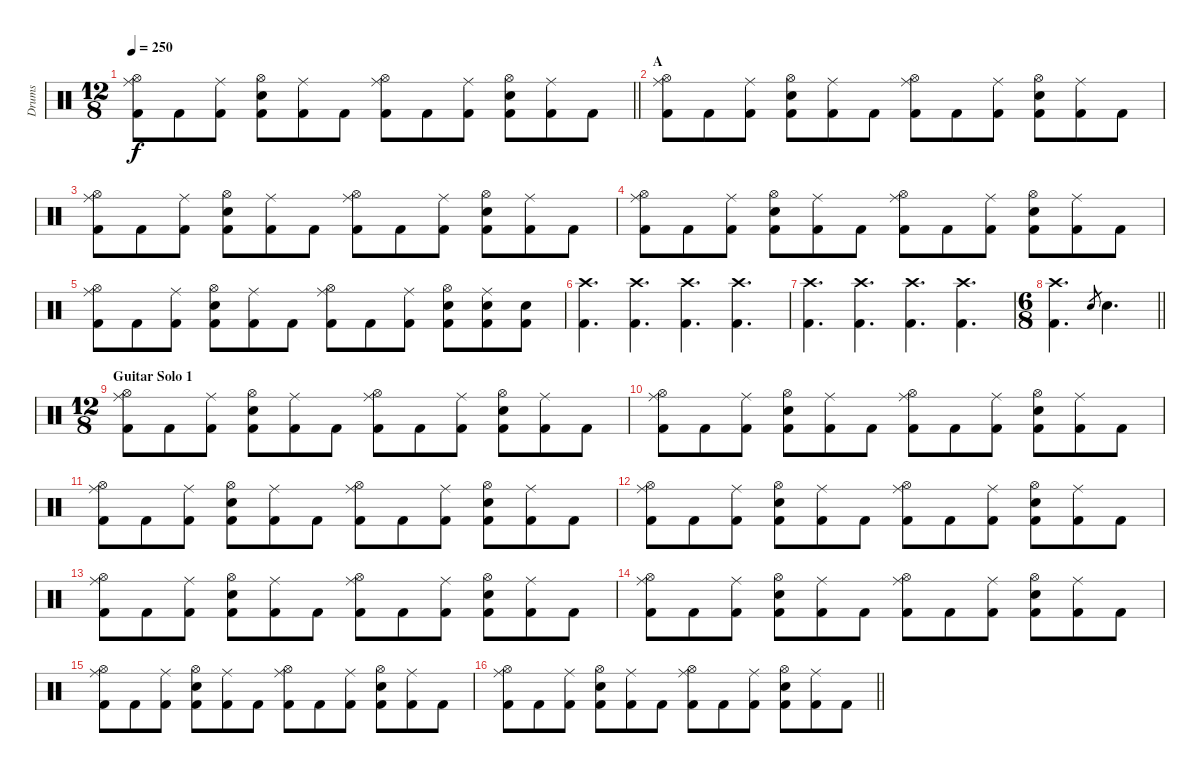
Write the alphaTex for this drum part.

\track ("Drums" "Drums") {instrument percussion}
\staff {score}
\articulation defaults
\ts (12 8)
\tempo 250
\clef neutral
\barLineRight lightlight
\ks c
("Ride (middle)" "Hi-Hat (open)" "Kick (hit) 2").8{dy f} "Kick (hit) 2".8 ("Ride (middle)" "Kick (hit) 2").8 ("Hi-Hat (open)" "Snare (hit) 2" "Kick (hit) 2").8 ("Ride (middle)" "Kick (hit) 2").8 "Kick (hit) 2".8 ("Ride (middle)" "Hi-Hat (open)" "Kick (hit) 2").8 "Kick (hit) 2".8 ("Ride (middle)" "Kick (hit) 2").8 ("Hi-Hat (open)" "Snare (hit) 2" "Kick (hit) 2").8 ("Ride (middle)" "Kick (hit) 2").8 "Kick (hit) 2".8 |
\section ("" "A")
("Ride (middle)" "Hi-Hat (open)" "Kick (hit) 2").8 "Kick (hit) 2".8 ("Ride (middle)" "Kick (hit) 2").8 ("Hi-Hat (open)" "Snare (hit) 2" "Kick (hit) 2").8 ("Ride (middle)" "Kick (hit) 2").8 "Kick (hit) 2".8 ("Ride (middle)" "Hi-Hat (open)" "Kick (hit) 2").8 "Kick (hit) 2".8 ("Ride (middle)" "Kick (hit) 2").8 ("Hi-Hat (open)" "Snare (hit) 2" "Kick (hit) 2").8 ("Ride (middle)" "Kick (hit) 2").8 "Kick (hit) 2".8 |
("Ride (middle)" "Hi-Hat (open)" "Kick (hit) 2").8 "Kick (hit) 2".8 ("Ride (middle)" "Kick (hit) 2").8 ("Hi-Hat (open)" "Snare (hit) 2" "Kick (hit) 2").8 ("Ride (middle)" "Kick (hit) 2").8 "Kick (hit) 2".8 ("Ride (middle)" "Hi-Hat (open)" "Kick (hit) 2").8 "Kick (hit) 2".8 ("Ride (middle)" "Kick (hit) 2").8 ("Hi-Hat (open)" "Snare (hit) 2" "Kick (hit) 2").8 ("Ride (middle)" "Kick (hit) 2").8 "Kick (hit) 2".8 |
("Ride (middle)" "Hi-Hat (open)" "Kick (hit) 2").8 "Kick (hit) 2".8 ("Ride (middle)" "Kick (hit) 2").8 ("Hi-Hat (open)" "Snare (hit) 2" "Kick (hit) 2").8 ("Ride (middle)" "Kick (hit) 2").8 "Kick (hit) 2".8 ("Ride (middle)" "Hi-Hat (open)" "Kick (hit) 2").8 "Kick (hit) 2".8 ("Ride (middle)" "Kick (hit) 2").8 ("Hi-Hat (open)" "Snare (hit) 2" "Kick (hit) 2").8 ("Ride (middle)" "Kick (hit) 2").8 "Kick (hit) 2".8 |
("Ride (middle)" "Hi-Hat (open)" "Kick (hit) 2").8 "Kick (hit) 2".8 ("Ride (middle)" "Kick (hit) 2").8 ("Hi-Hat (open)" "Snare (hit) 2" "Kick (hit) 2").8 ("Ride (middle)" "Kick (hit) 2").8 "Kick (hit) 2".8 ("Ride (middle)" "Hi-Hat (open)" "Kick (hit) 2").8 "Kick (hit) 2".8 ("Ride (middle)" "Kick (hit) 2").8 ("Hi-Hat (open)" "Snare (hit) 2" "Kick (hit) 2").8 ("Ride (middle)" "Snare (hit) 2" "Kick (hit) 2").8 ("Snare (hit) 2" "Kick (hit) 2").8 |
("Crash high (hit)" "Kick (hit) 2").4{d} ("Crash high (hit)" "Kick (hit) 2").4{d} ("Crash high (hit)" "Kick (hit) 2").4{d} ("Crash high (hit)" "Kick (hit) 2").4{d} |
("Crash high (hit)" "Kick (hit) 2").4{d} ("Crash high (hit)" "Kick (hit) 2").4{d} ("Crash high (hit)" "Kick (hit) 2").4{d} ("Crash high (hit)" "Kick (hit) 2").4{d} |
\ts (6 8)
\barLineRight lightlight
("Crash high (hit)" "Kick (hit) 2").4{d} "Snare (hit) 2".8{gr} "Snare (hit) 2".4{d} |
\ts (12 8)
\section ("" "Guitar Solo 1")
("Ride (middle)" "Hi-Hat (open)" "Kick (hit) 2").8 "Kick (hit) 2".8 ("Ride (middle)" "Kick (hit) 2").8 ("Hi-Hat (open)" "Snare (hit) 2" "Kick (hit) 2").8 ("Ride (middle)" "Kick (hit) 2").8 "Kick (hit) 2".8 ("Ride (middle)" "Hi-Hat (open)" "Kick (hit) 2").8 "Kick (hit) 2".8 ("Ride (middle)" "Kick (hit) 2").8 ("Hi-Hat (open)" "Snare (hit) 2" "Kick (hit) 2").8 ("Ride (middle)" "Kick (hit) 2").8 "Kick (hit) 2".8 |
("Ride (middle)" "Hi-Hat (open)" "Kick (hit) 2").8 "Kick (hit) 2".8 ("Ride (middle)" "Kick (hit) 2").8 ("Hi-Hat (open)" "Snare (hit) 2" "Kick (hit) 2").8 ("Ride (middle)" "Kick (hit) 2").8 "Kick (hit) 2".8 ("Ride (middle)" "Hi-Hat (open)" "Kick (hit) 2").8 "Kick (hit) 2".8 ("Ride (middle)" "Kick (hit) 2").8 ("Hi-Hat (open)" "Snare (hit) 2" "Kick (hit) 2").8 ("Ride (middle)" "Kick (hit) 2").8 "Kick (hit) 2".8 |
("Ride (middle)" "Hi-Hat (open)" "Kick (hit) 2").8 "Kick (hit) 2".8 ("Ride (middle)" "Kick (hit) 2").8 ("Hi-Hat (open)" "Snare (hit) 2" "Kick (hit) 2").8 ("Ride (middle)" "Kick (hit) 2").8 "Kick (hit) 2".8 ("Ride (middle)" "Hi-Hat (open)" "Kick (hit) 2").8 "Kick (hit) 2".8 ("Ride (middle)" "Kick (hit) 2").8 ("Hi-Hat (open)" "Snare (hit) 2" "Kick (hit) 2").8 ("Ride (middle)" "Kick (hit) 2").8 "Kick (hit) 2".8 |
("Ride (middle)" "Hi-Hat (open)" "Kick (hit) 2").8 "Kick (hit) 2".8 ("Ride (middle)" "Kick (hit) 2").8 ("Hi-Hat (open)" "Snare (hit) 2" "Kick (hit) 2").8 ("Ride (middle)" "Kick (hit) 2").8 "Kick (hit) 2".8 ("Ride (middle)" "Hi-Hat (open)" "Kick (hit) 2").8 "Kick (hit) 2".8 ("Ride (middle)" "Kick (hit) 2").8 ("Hi-Hat (open)" "Snare (hit) 2" "Kick (hit) 2").8 ("Ride (middle)" "Kick (hit) 2").8 "Kick (hit) 2".8 |
("Ride (middle)" "Hi-Hat (open)" "Kick (hit) 2").8 "Kick (hit) 2".8 ("Ride (middle)" "Kick (hit) 2").8 ("Hi-Hat (open)" "Snare (hit) 2" "Kick (hit) 2").8 ("Ride (middle)" "Kick (hit) 2").8 "Kick (hit) 2".8 ("Ride (middle)" "Hi-Hat (open)" "Kick (hit) 2").8 "Kick (hit) 2".8 ("Ride (middle)" "Kick (hit) 2").8 ("Hi-Hat (open)" "Snare (hit) 2" "Kick (hit) 2").8 ("Ride (middle)" "Kick (hit) 2").8 "Kick (hit) 2".8 |
("Ride (middle)" "Hi-Hat (open)" "Kick (hit) 2").8 "Kick (hit) 2".8 ("Ride (middle)" "Kick (hit) 2").8 ("Hi-Hat (open)" "Snare (hit) 2" "Kick (hit) 2").8 ("Ride (middle)" "Kick (hit) 2").8 "Kick (hit) 2".8 ("Ride (middle)" "Hi-Hat (open)" "Kick (hit) 2").8 "Kick (hit) 2".8 ("Ride (middle)" "Kick (hit) 2").8 ("Hi-Hat (open)" "Snare (hit) 2" "Kick (hit) 2").8 ("Ride (middle)" "Kick (hit) 2").8 "Kick (hit) 2".8 |
("Ride (middle)" "Hi-Hat (open)" "Kick (hit) 2").8 "Kick (hit) 2".8 ("Ride (middle)" "Kick (hit) 2").8 ("Hi-Hat (open)" "Snare (hit) 2" "Kick (hit) 2").8 ("Ride (middle)" "Kick (hit) 2").8 "Kick (hit) 2".8 ("Ride (middle)" "Hi-Hat (open)" "Kick (hit) 2").8 "Kick (hit) 2".8 ("Ride (middle)" "Kick (hit) 2").8 ("Hi-Hat (open)" "Snare (hit) 2" "Kick (hit) 2").8 ("Ride (middle)" "Kick (hit) 2").8 "Kick (hit) 2".8 |
\barLineRight lightlight
("Ride (middle)" "Hi-Hat (open)" "Kick (hit) 2").8 "Kick (hit) 2".8 ("Ride (middle)" "Kick (hit) 2").8 ("Hi-Hat (open)" "Snare (hit) 2" "Kick (hit) 2").8 ("Ride (middle)" "Kick (hit) 2").8 "Kick (hit) 2".8 ("Ride (middle)" "Hi-Hat (open)" "Kick (hit) 2").8 "Kick (hit) 2".8 ("Ride (middle)" "Kick (hit) 2").8 ("Hi-Hat (open)" "Snare (hit) 2" "Kick (hit) 2").8 ("Ride (middle)" "Kick (hit) 2").8 "Kick (hit) 2".8
